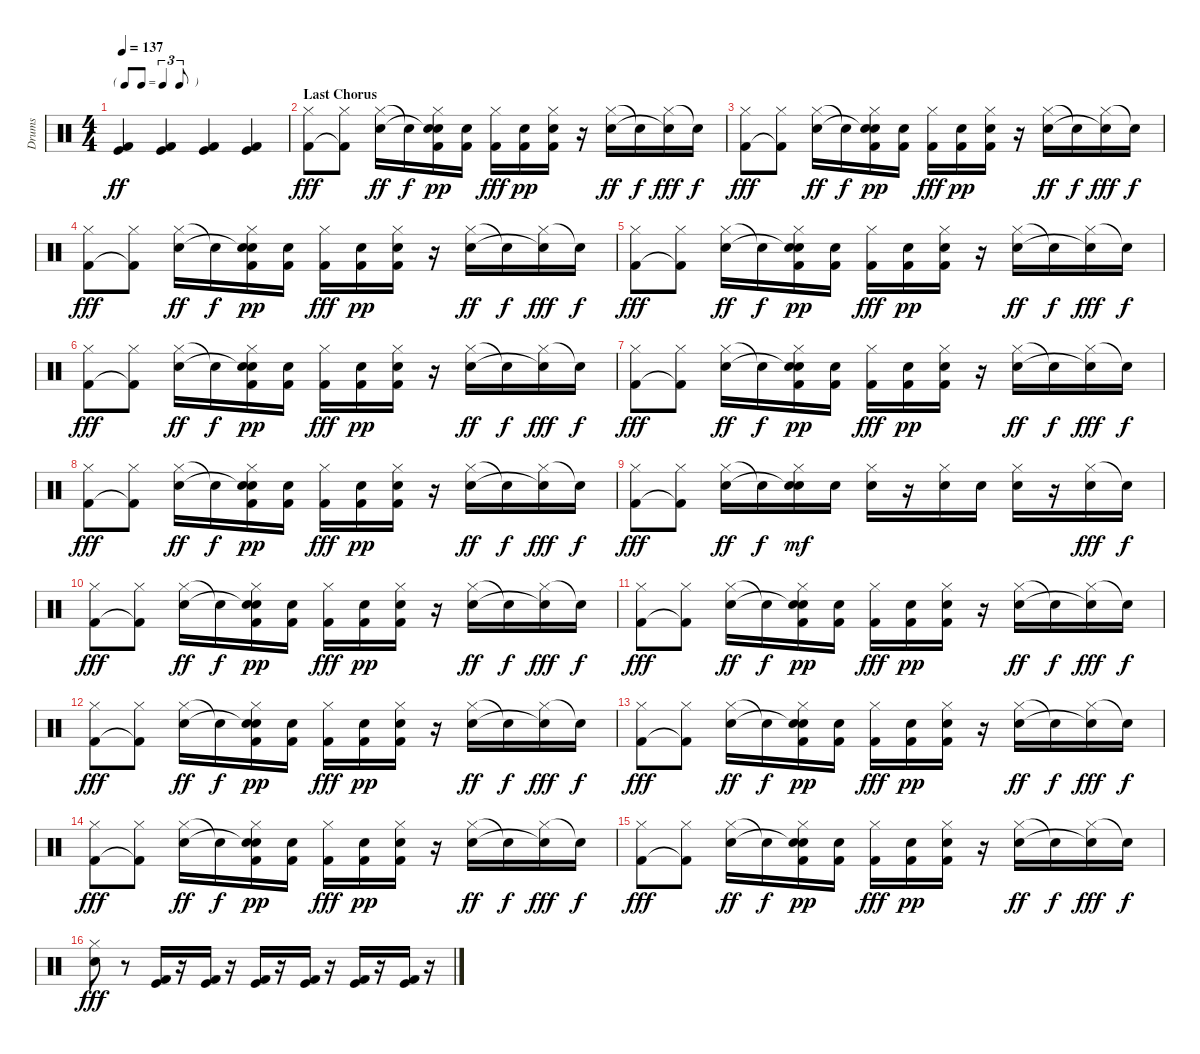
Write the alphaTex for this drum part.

\track ("Drums" "Drums") {instrument percussion}
\staff {score}
\articulation defaults
\ts (4 4)
\tf triplet8th
\tempo 137
\clef neutral
\ks c
("Kick (hit)" "Kick (hit) 2").4{dy ff} ("Kick (hit)" "Kick (hit) 2").4 ("Kick (hit)" "Kick (hit) 2").4 ("Kick (hit)" "Kick (hit) 2").4 |
\section ("" "Last Chorus")
("Hi-Hat (closed)" "Kick (hit) 2").8{dy fff} ("Hi-Hat (closed)" "Kick (hit) 2"{t}).8 ("Hi-Hat (closed)" "Electric Snare (hit)").16{dy ff} "Snare (hit)"{t}.16{dy f} ("Hi-Hat (closed)" "Snare (hit)"{t} "Electric Snare (hit)" "Kick (hit) 2").16{dy pp} ("Electric Snare (hit)" "Kick (hit) 2").16 ("Hi-Hat (closed)" "Kick (hit) 2").16{dy fff} ("Electric Snare (hit)" "Kick (hit) 2").16{dy pp} ("Hi-Hat (closed)" "Electric Snare (hit)" "Kick (hit) 2").16 r.16 ("Hi-Hat (closed)" "Electric Snare (hit)").16{dy ff} "Snare (hit)"{t}.16{dy f} ("Hi-Hat (closed)" "Snare (hit)"{t}).16{dy fff} "Snare (hit)"{t}.16{dy f} |
("Hi-Hat (closed)" "Kick (hit) 2").8{dy fff} ("Hi-Hat (closed)" "Kick (hit) 2"{t}).8 ("Hi-Hat (closed)" "Electric Snare (hit)").16{dy ff} "Snare (hit)"{t}.16{dy f} ("Hi-Hat (closed)" "Snare (hit)"{t} "Electric Snare (hit)" "Kick (hit) 2").16{dy pp} ("Electric Snare (hit)" "Kick (hit) 2").16 ("Hi-Hat (closed)" "Kick (hit) 2").16{dy fff} ("Electric Snare (hit)" "Kick (hit) 2").16{dy pp} ("Hi-Hat (closed)" "Electric Snare (hit)" "Kick (hit) 2").16 r.16 ("Hi-Hat (closed)" "Electric Snare (hit)").16{dy ff} "Snare (hit)"{t}.16{dy f} ("Hi-Hat (closed)" "Snare (hit)"{t}).16{dy fff} "Snare (hit)"{t}.16{dy f} |
("Hi-Hat (closed)" "Kick (hit) 2").8{dy fff} ("Hi-Hat (closed)" "Kick (hit) 2"{t}).8 ("Hi-Hat (closed)" "Electric Snare (hit)").16{dy ff} "Snare (hit)"{t}.16{dy f} ("Hi-Hat (closed)" "Snare (hit)"{t} "Electric Snare (hit)" "Kick (hit) 2").16{dy pp} ("Electric Snare (hit)" "Kick (hit) 2").16 ("Hi-Hat (closed)" "Kick (hit) 2").16{dy fff} ("Electric Snare (hit)" "Kick (hit) 2").16{dy pp} ("Hi-Hat (closed)" "Electric Snare (hit)" "Kick (hit) 2").16 r.16 ("Hi-Hat (closed)" "Electric Snare (hit)").16{dy ff} "Snare (hit)"{t}.16{dy f} ("Hi-Hat (closed)" "Snare (hit)"{t}).16{dy fff} "Snare (hit)"{t}.16{dy f} |
("Hi-Hat (closed)" "Kick (hit) 2").8{dy fff} ("Hi-Hat (closed)" "Kick (hit) 2"{t}).8 ("Hi-Hat (closed)" "Electric Snare (hit)").16{dy ff} "Snare (hit)"{t}.16{dy f} ("Hi-Hat (closed)" "Snare (hit)"{t} "Electric Snare (hit)" "Kick (hit) 2").16{dy pp} ("Electric Snare (hit)" "Kick (hit) 2").16 ("Hi-Hat (closed)" "Kick (hit) 2").16{dy fff} ("Electric Snare (hit)" "Kick (hit) 2").16{dy pp} ("Hi-Hat (closed)" "Electric Snare (hit)" "Kick (hit) 2").16 r.16 ("Hi-Hat (closed)" "Electric Snare (hit)").16{dy ff} "Snare (hit)"{t}.16{dy f} ("Hi-Hat (closed)" "Snare (hit)"{t}).16{dy fff} "Snare (hit)"{t}.16{dy f} |
("Hi-Hat (closed)" "Kick (hit) 2").8{dy fff} ("Hi-Hat (closed)" "Kick (hit) 2"{t}).8 ("Hi-Hat (closed)" "Electric Snare (hit)").16{dy ff} "Snare (hit)"{t}.16{dy f} ("Hi-Hat (closed)" "Snare (hit)"{t} "Electric Snare (hit)" "Kick (hit) 2").16{dy pp} ("Electric Snare (hit)" "Kick (hit) 2").16 ("Hi-Hat (closed)" "Kick (hit) 2").16{dy fff} ("Electric Snare (hit)" "Kick (hit) 2").16{dy pp} ("Hi-Hat (closed)" "Electric Snare (hit)" "Kick (hit) 2").16 r.16 ("Hi-Hat (closed)" "Electric Snare (hit)").16{dy ff} "Snare (hit)"{t}.16{dy f} ("Hi-Hat (closed)" "Snare (hit)"{t}).16{dy fff} "Snare (hit)"{t}.16{dy f} |
("Hi-Hat (closed)" "Kick (hit) 2").8{dy fff} ("Hi-Hat (closed)" "Kick (hit) 2"{t}).8 ("Hi-Hat (closed)" "Electric Snare (hit)").16{dy ff} "Snare (hit)"{t}.16{dy f} ("Hi-Hat (closed)" "Snare (hit)"{t} "Electric Snare (hit)" "Kick (hit) 2").16{dy pp} ("Electric Snare (hit)" "Kick (hit) 2").16 ("Hi-Hat (closed)" "Kick (hit) 2").16{dy fff} ("Electric Snare (hit)" "Kick (hit) 2").16{dy pp} ("Hi-Hat (closed)" "Electric Snare (hit)" "Kick (hit) 2").16 r.16 ("Hi-Hat (closed)" "Electric Snare (hit)").16{dy ff} "Snare (hit)"{t}.16{dy f} ("Hi-Hat (closed)" "Snare (hit)"{t}).16{dy fff} "Snare (hit)"{t}.16{dy f} |
("Hi-Hat (closed)" "Kick (hit) 2").8{dy fff} ("Hi-Hat (closed)" "Kick (hit) 2"{t}).8 ("Hi-Hat (closed)" "Electric Snare (hit)").16{dy ff} "Snare (hit)"{t}.16{dy f} ("Hi-Hat (closed)" "Snare (hit)"{t} "Electric Snare (hit)" "Kick (hit) 2").16{dy pp} ("Electric Snare (hit)" "Kick (hit) 2").16 ("Hi-Hat (closed)" "Kick (hit) 2").16{dy fff} ("Electric Snare (hit)" "Kick (hit) 2").16{dy pp} ("Hi-Hat (closed)" "Electric Snare (hit)" "Kick (hit) 2").16 r.16 ("Hi-Hat (closed)" "Electric Snare (hit)").16{dy ff} "Snare (hit)"{t}.16{dy f} ("Hi-Hat (closed)" "Snare (hit)"{t}).16{dy fff} "Snare (hit)"{t}.16{dy f} |
("Hi-Hat (closed)" "Kick (hit) 2").8{dy fff} ("Hi-Hat (closed)" "Kick (hit) 2"{t}).8 ("Hi-Hat (closed)" "Electric Snare (hit)").16{dy ff} "Snare (hit)"{t}.16{dy f} ("Hi-Hat (closed)" "Snare (hit)"{t} "Electric Snare (hit)").16{dy mf} "Electric Snare (hit)".16 ("Hi-Hat (closed)" "Electric Snare (hit)").16 r.16 ("Hi-Hat (closed)" "Electric Snare (hit)").16 "Electric Snare (hit)".16 ("Hi-Hat (closed)" "Electric Snare (hit)").16 r.16 ("Hi-Hat (closed)" "Electric Snare (hit)").16{dy fff} "Snare (hit)"{t}.16{dy f} |
("Hi-Hat (closed)" "Kick (hit) 2").8{dy fff} ("Hi-Hat (closed)" "Kick (hit) 2"{t}).8 ("Hi-Hat (closed)" "Electric Snare (hit)").16{dy ff} "Snare (hit)"{t}.16{dy f} ("Hi-Hat (closed)" "Snare (hit)"{t} "Electric Snare (hit)" "Kick (hit) 2").16{dy pp} ("Electric Snare (hit)" "Kick (hit) 2").16 ("Hi-Hat (closed)" "Kick (hit) 2").16{dy fff} ("Electric Snare (hit)" "Kick (hit) 2").16{dy pp} ("Hi-Hat (closed)" "Electric Snare (hit)" "Kick (hit) 2").16 r.16 ("Hi-Hat (closed)" "Electric Snare (hit)").16{dy ff} "Snare (hit)"{t}.16{dy f} ("Hi-Hat (closed)" "Snare (hit)"{t}).16{dy fff} "Snare (hit)"{t}.16{dy f} |
("Hi-Hat (closed)" "Kick (hit) 2").8{dy fff} ("Hi-Hat (closed)" "Kick (hit) 2"{t}).8 ("Hi-Hat (closed)" "Electric Snare (hit)").16{dy ff} "Snare (hit)"{t}.16{dy f} ("Hi-Hat (closed)" "Snare (hit)"{t} "Electric Snare (hit)" "Kick (hit) 2").16{dy pp} ("Electric Snare (hit)" "Kick (hit) 2").16 ("Hi-Hat (closed)" "Kick (hit) 2").16{dy fff} ("Electric Snare (hit)" "Kick (hit) 2").16{dy pp} ("Hi-Hat (closed)" "Electric Snare (hit)" "Kick (hit) 2").16 r.16 ("Hi-Hat (closed)" "Electric Snare (hit)").16{dy ff} "Snare (hit)"{t}.16{dy f} ("Hi-Hat (closed)" "Snare (hit)"{t}).16{dy fff} "Snare (hit)"{t}.16{dy f} |
("Hi-Hat (closed)" "Kick (hit) 2").8{dy fff} ("Hi-Hat (closed)" "Kick (hit) 2"{t}).8 ("Hi-Hat (closed)" "Electric Snare (hit)").16{dy ff} "Snare (hit)"{t}.16{dy f} ("Hi-Hat (closed)" "Snare (hit)"{t} "Electric Snare (hit)" "Kick (hit) 2").16{dy pp} ("Electric Snare (hit)" "Kick (hit) 2").16 ("Hi-Hat (closed)" "Kick (hit) 2").16{dy fff} ("Electric Snare (hit)" "Kick (hit) 2").16{dy pp} ("Hi-Hat (closed)" "Electric Snare (hit)" "Kick (hit) 2").16 r.16 ("Hi-Hat (closed)" "Electric Snare (hit)").16{dy ff} "Snare (hit)"{t}.16{dy f} ("Hi-Hat (closed)" "Snare (hit)"{t}).16{dy fff} "Snare (hit)"{t}.16{dy f} |
("Hi-Hat (closed)" "Kick (hit) 2").8{dy fff} ("Hi-Hat (closed)" "Kick (hit) 2"{t}).8 ("Hi-Hat (closed)" "Electric Snare (hit)").16{dy ff} "Snare (hit)"{t}.16{dy f} ("Hi-Hat (closed)" "Snare (hit)"{t} "Electric Snare (hit)" "Kick (hit) 2").16{dy pp} ("Electric Snare (hit)" "Kick (hit) 2").16 ("Hi-Hat (closed)" "Kick (hit) 2").16{dy fff} ("Electric Snare (hit)" "Kick (hit) 2").16{dy pp} ("Hi-Hat (closed)" "Electric Snare (hit)" "Kick (hit) 2").16 r.16 ("Hi-Hat (closed)" "Electric Snare (hit)").16{dy ff} "Snare (hit)"{t}.16{dy f} ("Hi-Hat (closed)" "Snare (hit)"{t}).16{dy fff} "Snare (hit)"{t}.16{dy f} |
("Hi-Hat (closed)" "Kick (hit) 2").8{dy fff} ("Hi-Hat (closed)" "Kick (hit) 2"{t}).8 ("Hi-Hat (closed)" "Electric Snare (hit)").16{dy ff} "Snare (hit)"{t}.16{dy f} ("Hi-Hat (closed)" "Snare (hit)"{t} "Electric Snare (hit)" "Kick (hit) 2").16{dy pp} ("Electric Snare (hit)" "Kick (hit) 2").16 ("Hi-Hat (closed)" "Kick (hit) 2").16{dy fff} ("Electric Snare (hit)" "Kick (hit) 2").16{dy pp} ("Hi-Hat (closed)" "Electric Snare (hit)" "Kick (hit) 2").16 r.16 ("Hi-Hat (closed)" "Electric Snare (hit)").16{dy ff} "Snare (hit)"{t}.16{dy f} ("Hi-Hat (closed)" "Snare (hit)"{t}).16{dy fff} "Snare (hit)"{t}.16{dy f} |
("Hi-Hat (closed)" "Kick (hit) 2").8{dy fff} ("Hi-Hat (closed)" "Kick (hit) 2"{t}).8 ("Hi-Hat (closed)" "Electric Snare (hit)").16{dy ff} "Snare (hit)"{t}.16{dy f} ("Hi-Hat (closed)" "Snare (hit)"{t} "Electric Snare (hit)" "Kick (hit) 2").16{dy pp} ("Electric Snare (hit)" "Kick (hit) 2").16 ("Hi-Hat (closed)" "Kick (hit) 2").16{dy fff} ("Electric Snare (hit)" "Kick (hit) 2").16{dy pp} ("Hi-Hat (closed)" "Electric Snare (hit)" "Kick (hit) 2").16 r.16 ("Hi-Hat (closed)" "Electric Snare (hit)").16{dy ff} "Snare (hit)"{t}.16{dy f} ("Hi-Hat (closed)" "Snare (hit)"{t}).16{dy fff} "Snare (hit)"{t}.16{dy f} |
("Hi-Hat (closed)" "Electric Snare (hit)").8{dy fff} r.8 ("Kick (hit)" "Kick (hit) 2").16 r.16 ("Kick (hit)" "Kick (hit) 2").16 r.16 ("Kick (hit)" "Kick (hit) 2").16 r.16 ("Kick (hit)" "Kick (hit) 2").16 r.16 ("Kick (hit)" "Kick (hit) 2").16 r.16 ("Kick (hit)" "Kick (hit) 2").16 r.16
